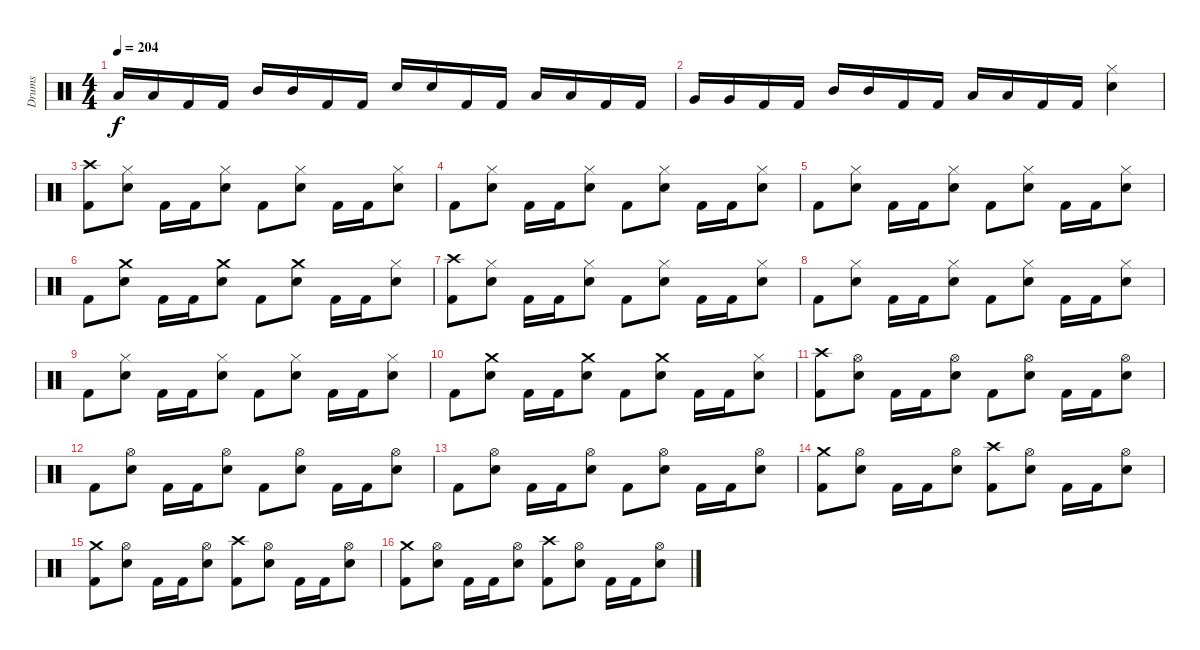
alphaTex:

\track ("Drums" "Drums") {instrument percussion}
\staff {score}
\articulation defaults
\ts (4 4)
\tempo 204
\clef neutral
\ks c "Low Tom (hit)".16{dy f} "Low Tom (hit)".16 "Kick (hit) 2".16 "Kick (hit) 2".16 "Mid Tom (hit)".16 "Mid Tom (hit)".16 "Kick (hit) 2".16 "Kick (hit) 2".16 "Electric Snare (hit)".16 "Electric Snare (hit)".16 "Kick (hit) 2".16 "Kick (hit) 2".16 "Low Tom (hit)".16 "Low Tom (hit)".16 "Kick (hit) 2".16 "Kick (hit) 2".16
|
"Very Low Tom (hit)".16 "Very Low Tom (hit)".16 "Kick (hit) 2".16 "Kick (hit) 2".16 "Mid Tom (hit)".16 "Mid Tom (hit)".16 "Kick (hit) 2".16 "Kick (hit) 2".16 "Low Tom (hit)".16 "Low Tom (hit)".16 "Kick (hit) 2".16 "Kick (hit) 2".16 ("Hi-Hat (closed)" "Electric Snare (hit)").4 |
("Crash high (hit)" "Kick (hit) 2").8 ("Hi-Hat (closed)" "Electric Snare (hit)").8 "Kick (hit) 2".16 "Kick (hit) 2".16 ("Hi-Hat (closed)" "Electric Snare (hit)").8 "Kick (hit) 2".8 ("Hi-Hat (closed)" "Electric Snare (hit)").8 "Kick (hit) 2".16 "Kick (hit) 2".16 ("Hi-Hat (closed)" "Electric Snare (hit)").8 |
"Kick (hit) 2".8 ("Hi-Hat (closed)" "Electric Snare (hit)").8 "Kick (hit) 2".16 "Kick (hit) 2".16 ("Hi-Hat (closed)" "Electric Snare (hit)").8 "Kick (hit) 2".8 ("Hi-Hat (closed)" "Electric Snare (hit)").8 "Kick (hit) 2".16 "Kick (hit) 2".16 ("Hi-Hat (closed)" "Electric Snare (hit)").8 |
"Kick (hit) 2".8 ("Hi-Hat (closed)" "Electric Snare (hit)").8 "Kick (hit) 2".16 "Kick (hit) 2".16 ("Hi-Hat (closed)" "Electric Snare (hit)").8 "Kick (hit) 2".8 ("Hi-Hat (closed)" "Electric Snare (hit)").8 "Kick (hit) 2".16 "Kick (hit) 2".16 ("Hi-Hat (closed)" "Electric Snare (hit)").8 |
"Kick (hit) 2".8 ("Crash medium (hit)" "Electric Snare (hit)").8 "Kick (hit) 2".16 "Kick (hit) 2".16 ("Crash medium (hit)" "Electric Snare (hit)").8 "Kick (hit) 2".8 ("Crash medium (hit)" "Electric Snare (hit)").8 "Kick (hit) 2".16 "Kick (hit) 2".16 ("Hi-Hat (closed)" "Electric Snare (hit)").8 |
("Crash high (hit)" "Kick (hit) 2").8 ("Hi-Hat (closed)" "Electric Snare (hit)").8 "Kick (hit) 2".16 "Kick (hit) 2".16 ("Hi-Hat (closed)" "Electric Snare (hit)").8 "Kick (hit) 2".8 ("Hi-Hat (closed)" "Electric Snare (hit)").8 "Kick (hit) 2".16 "Kick (hit) 2".16 ("Hi-Hat (closed)" "Electric Snare (hit)").8 |
"Kick (hit) 2".8 ("Hi-Hat (closed)" "Electric Snare (hit)").8 "Kick (hit) 2".16 "Kick (hit) 2".16 ("Hi-Hat (closed)" "Electric Snare (hit)").8 "Kick (hit) 2".8 ("Hi-Hat (closed)" "Electric Snare (hit)").8 "Kick (hit) 2".16 "Kick (hit) 2".16 ("Hi-Hat (closed)" "Electric Snare (hit)").8 |
"Kick (hit) 2".8 ("Hi-Hat (closed)" "Electric Snare (hit)").8 "Kick (hit) 2".16 "Kick (hit) 2".16 ("Hi-Hat (closed)" "Electric Snare (hit)").8 "Kick (hit) 2".8 ("Hi-Hat (closed)" "Electric Snare (hit)").8 "Kick (hit) 2".16 "Kick (hit) 2".16 ("Hi-Hat (closed)" "Electric Snare (hit)").8 |
"Kick (hit) 2".8 ("Crash medium (hit)" "Electric Snare (hit)").8 "Kick (hit) 2".16 "Kick (hit) 2".16 ("Crash medium (hit)" "Electric Snare (hit)").8 "Kick (hit) 2".8 ("Crash medium (hit)" "Electric Snare (hit)").8 "Kick (hit) 2".16 "Kick (hit) 2".16 ("Hi-Hat (closed)" "Electric Snare (hit)").8 |
("Crash high (hit)" "Kick (hit) 2").8 ("Hi-Hat (open)" "Electric Snare (hit)").8 "Kick (hit) 2".16 "Kick (hit) 2".16 ("Hi-Hat (open)" "Electric Snare (hit)").8 "Kick (hit) 2".8 ("Hi-Hat (open)" "Electric Snare (hit)").8 "Kick (hit) 2".16 "Kick (hit) 2".16 ("Hi-Hat (open)" "Electric Snare (hit)").8 |
"Kick (hit) 2".8 ("Hi-Hat (open)" "Electric Snare (hit)").8 "Kick (hit) 2".16 "Kick (hit) 2".16 ("Hi-Hat (open)" "Electric Snare (hit)").8 "Kick (hit) 2".8 ("Hi-Hat (open)" "Electric Snare (hit)").8 "Kick (hit) 2".16 "Kick (hit) 2".16 ("Hi-Hat (open)" "Electric Snare (hit)").8 |
"Kick (hit) 2".8 ("Hi-Hat (open)" "Electric Snare (hit)").8 "Kick (hit) 2".16 "Kick (hit) 2".16 ("Hi-Hat (open)" "Electric Snare (hit)").8 "Kick (hit) 2".8 ("Hi-Hat (open)" "Electric Snare (hit)").8 "Kick (hit) 2".16 "Kick (hit) 2".16 ("Hi-Hat (open)" "Electric Snare (hit)").8 |
("Crash medium (hit)" "Kick (hit) 2").8 ("Hi-Hat (open)" "Electric Snare (hit)").8 "Kick (hit) 2".16 "Kick (hit) 2".16 ("Hi-Hat (open)" "Electric Snare (hit)").8 ("Crash high (hit)" "Kick (hit) 2").8 ("Hi-Hat (open)" "Electric Snare (hit)").8 "Kick (hit) 2".16 "Kick (hit) 2".16 ("Hi-Hat (open)" "Electric Snare (hit)").8 |
("Crash medium (hit)" "Kick (hit) 2").8 ("Hi-Hat (open)" "Electric Snare (hit)").8 "Kick (hit) 2".16 "Kick (hit) 2".16 ("Hi-Hat (open)" "Electric Snare (hit)").8 ("Crash high (hit)" "Kick (hit) 2").8 ("Hi-Hat (open)" "Electric Snare (hit)").8 "Kick (hit) 2".16 "Kick (hit) 2".16 ("Hi-Hat (open)" "Electric Snare (hit)").8 |
("Crash medium (hit)" "Kick (hit) 2").8 ("Hi-Hat (open)" "Electric Snare (hit)").8 "Kick (hit) 2".16 "Kick (hit) 2".16 ("Hi-Hat (open)" "Electric Snare (hit)").8 ("Crash high (hit)" "Kick (hit) 2").8 ("Hi-Hat (open)" "Electric Snare (hit)").8 "Kick (hit) 2".16 "Kick (hit) 2".16 ("Hi-Hat (open)" "Electric Snare (hit)").8
